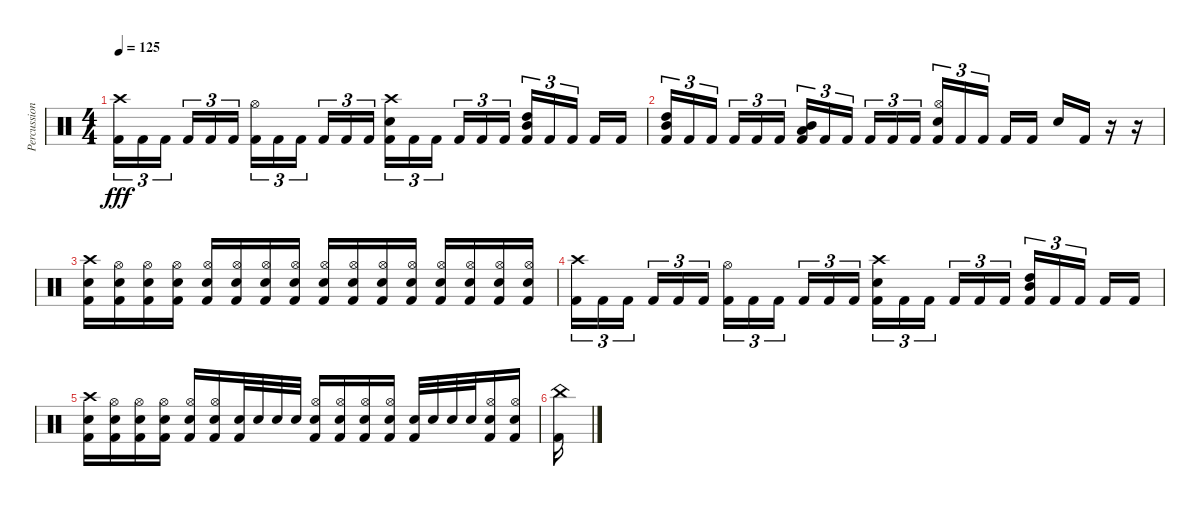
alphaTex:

\track ("Percussion" "Percussion") {instrument percussion}
\staff {score}
\articulation defaults
\ts (4 4)
\tempo 125
\clef neutral
\ks c
("Crash high (hit)" "Kick (hit) 2").16{tu (3 2) dy fff} "Kick (hit) 2".16{tu (3 2)} "Kick (hit) 2".16{tu (3 2) beam splitsecondary} "Kick (hit) 2".16{tu (3 2)} "Kick (hit) 2".16{tu (3 2)} "Kick (hit) 2".16{tu (3 2)} ("Hi-Hat (open)" "Kick (hit) 2").16{tu (3 2)} "Kick (hit) 2".16{tu (3 2)} "Kick (hit) 2".16{tu (3 2) beam splitsecondary} "Kick (hit) 2".16{tu (3 2)} "Kick (hit) 2".16{tu (3 2)} "Kick (hit) 2".16{tu (3 2)} ("Electric Snare (hit)" "Crash high (hit)" "Kick (hit) 2").16{tu (3 2)} "Kick (hit) 2".16{tu (3 2)} "Kick (hit) 2".16{tu (3 2) beam splitsecondary} "Kick (hit) 2".16{tu (3 2)} "Kick (hit) 2".16{tu (3 2)} "Kick (hit) 2".16{tu (3 2)} ("Mid Tom (hit)" "High Tom (hit)" "Kick (hit) 2").16{tu (3 2)} "Kick (hit) 2".16{tu (3 2)} "Kick (hit) 2".16{tu (3 2) beam splitsecondary} "Kick (hit) 2".16 "Kick (hit) 2".16 |
("Mid Tom (hit)" "High Tom (hit)" "Kick (hit) 2").16{tu (3 2)} "Kick (hit) 2".16{tu (3 2)} "Kick (hit) 2".16{tu (3 2) beam splitsecondary} "Kick (hit) 2".16{tu (3 2)} "Kick (hit) 2".16{tu (3 2)} "Kick (hit) 2".16{tu (3 2)} ("Low Tom (hit)" "Mid Tom (hit)" "Kick (hit) 2").16{tu (3 2)} "Kick (hit) 2".16{tu (3 2)} "Kick (hit) 2".16{tu (3 2) beam splitsecondary} "Kick (hit) 2".16{tu (3 2)} "Kick (hit) 2".16{tu (3 2)} "Kick (hit) 2".16{tu (3 2)} ("Electric Snare (hit)" "Hi-Hat (open)" "Kick (hit) 2").16{tu (3 2)} "Kick (hit) 2".16{tu (3 2)} "Kick (hit) 2".16{tu (3 2) beam splitsecondary} "Kick (hit) 2".16 "Kick (hit) 2".16 "Electric Snare (hit)".16 "Kick (hit) 2".16 r.16 r.16 |
("Electric Snare (hit)" "Crash high (hit)" "Kick (hit) 2").16 ("Electric Snare (hit)" "Hi-Hat (open)" "Kick (hit) 2").16 ("Electric Snare (hit)" "Hi-Hat (open)" "Kick (hit) 2").16 ("Electric Snare (hit)" "Hi-Hat (open)" "Kick (hit) 2").16 ("Electric Snare (hit)" "Hi-Hat (open)" "Kick (hit) 2").16 ("Electric Snare (hit)" "Hi-Hat (open)" "Kick (hit) 2").16 ("Electric Snare (hit)" "Hi-Hat (open)" "Kick (hit) 2").16 ("Electric Snare (hit)" "Hi-Hat (open)" "Kick (hit) 2").16 ("Electric Snare (hit)" "Hi-Hat (open)" "Kick (hit) 2").16 ("Electric Snare (hit)" "Hi-Hat (open)" "Kick (hit) 2").16 ("Electric Snare (hit)" "Hi-Hat (open)" "Kick (hit) 2").16 ("Electric Snare (hit)" "Hi-Hat (open)" "Kick (hit) 2").16 ("Electric Snare (hit)" "Hi-Hat (open)" "Kick (hit) 2").16 ("Electric Snare (hit)" "Hi-Hat (open)" "Kick (hit) 2").16 ("Electric Snare (hit)" "Hi-Hat (open)" "Kick (hit) 2").16 ("Electric Snare (hit)" "Hi-Hat (open)" "Kick (hit) 2").16 |
("Crash high (hit)" "Kick (hit) 2").16{tu (3 2)} "Kick (hit) 2".16{tu (3 2)} "Kick (hit) 2".16{tu (3 2) beam splitsecondary} "Kick (hit) 2".16{tu (3 2)} "Kick (hit) 2".16{tu (3 2)} "Kick (hit) 2".16{tu (3 2)} ("Hi-Hat (open)" "Kick (hit) 2").16{tu (3 2)} "Kick (hit) 2".16{tu (3 2)} "Kick (hit) 2".16{tu (3 2) beam splitsecondary} "Kick (hit) 2".16{tu (3 2)} "Kick (hit) 2".16{tu (3 2)} "Kick (hit) 2".16{tu (3 2)} ("Electric Snare (hit)" "Crash high (hit)" "Kick (hit) 2").16{tu (3 2)} "Kick (hit) 2".16{tu (3 2)} "Kick (hit) 2".16{tu (3 2) beam splitsecondary} "Kick (hit) 2".16{tu (3 2)} "Kick (hit) 2".16{tu (3 2)} "Kick (hit) 2".16{tu (3 2)} ("Mid Tom (hit)" "High Tom (hit)" "Kick (hit) 2").16{tu (3 2)} "Kick (hit) 2".16{tu (3 2)} "Kick (hit) 2".16{tu (3 2) beam splitsecondary} "Kick (hit) 2".16 "Kick (hit) 2".16 |
("Electric Snare (hit)" "Crash high (hit)" "Kick (hit) 2").16 ("Electric Snare (hit)" "Hi-Hat (open)" "Kick (hit) 2").16 ("Electric Snare (hit)" "Hi-Hat (open)" "Kick (hit) 2").16 ("Electric Snare (hit)" "Hi-Hat (open)" "Kick (hit) 2").16 ("Electric Snare (hit)" "Hi-Hat (open)" "Kick (hit) 2").16 ("Electric Snare (hit)" "Hi-Hat (open)" "Kick (hit) 2").16 ("Electric Snare (hit)" "Kick (hit) 2").32 "Electric Snare (hit)".32 "Electric Snare (hit)".32 "Electric Snare (hit)".32 ("Electric Snare (hit)" "Hi-Hat (open)" "Kick (hit) 2").16 ("Electric Snare (hit)" "Hi-Hat (open)" "Kick (hit) 2").16 ("Electric Snare (hit)" "Hi-Hat (open)" "Kick (hit) 2").16 ("Electric Snare (hit)" "Hi-Hat (open)" "Kick (hit) 2").16 ("Electric Snare (hit)" "Kick (hit) 2").32 "Electric Snare (hit)".32 "Electric Snare (hit)".32 "Electric Snare (hit)".32 ("Electric Snare (hit)" "Hi-Hat (open)" "Kick (hit) 2").16 ("Electric Snare (hit)" "Hi-Hat (open)" "Kick (hit) 2").16 |
("China (hit)" "Kick (hit) 2").16
